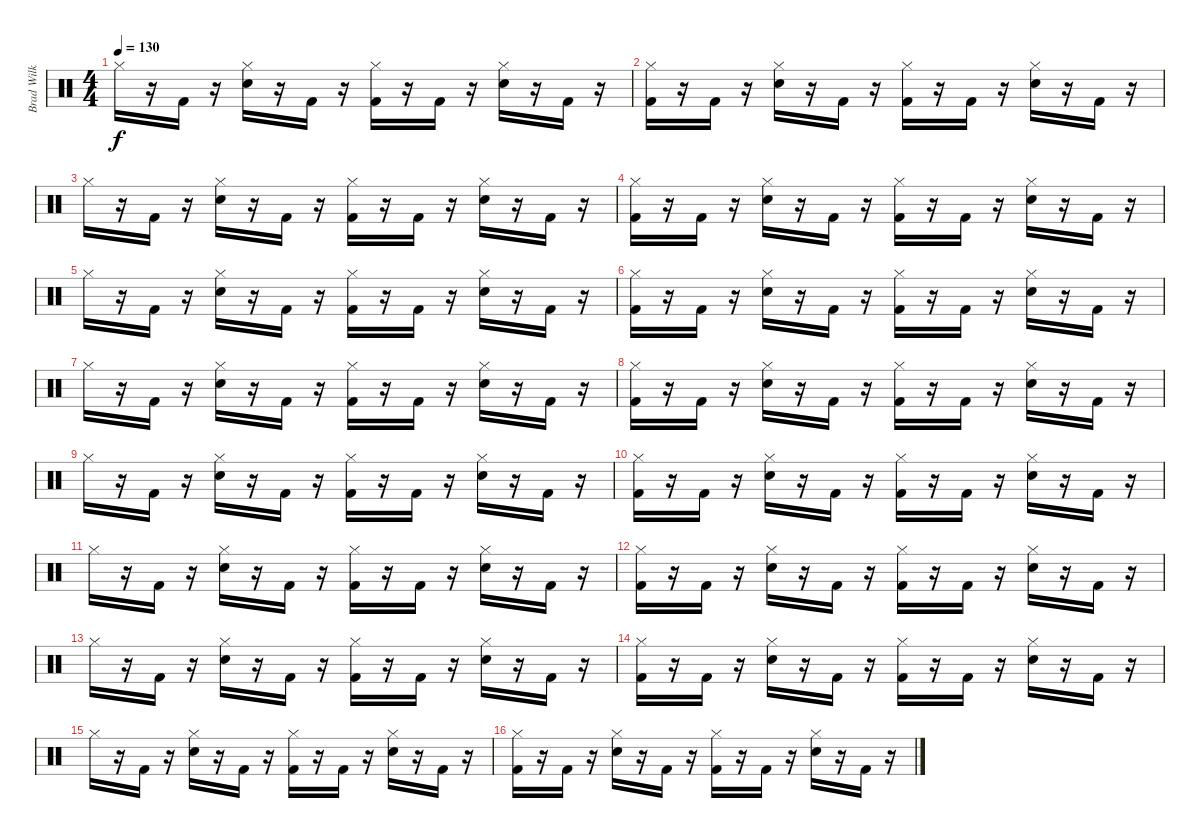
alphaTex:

\track ("Brad Wilk - Drums" "Brad Wilk ") {instrument percussion}
\staff {score}
\articulation defaults
\ts (4 4)
\tempo 130
\clef neutral
\ks c "Hi-Hat (closed)".16{dy f}
r.16 "Kick (hit) 2".16 r.16 ("Hi-Hat (closed)" "Electric Snare (hit)").16 r.16 "Kick (hit) 2".16 r.16 ("Hi-Hat (closed)" "Kick (hit) 2").16 r.16 "Kick (hit) 2".16 r.16 ("Hi-Hat (closed)" "Electric Snare (hit)").16 r.16 "Kick (hit) 2".16 r.16 |
("Hi-Hat (closed)" "Kick (hit) 2").16 r.16 "Kick (hit) 2".16 r.16 ("Hi-Hat (closed)" "Electric Snare (hit)").16 r.16 "Kick (hit) 2".16 r.16 ("Hi-Hat (closed)" "Kick (hit) 2").16 r.16 "Kick (hit) 2".16 r.16 ("Hi-Hat (closed)" "Electric Snare (hit)").16 r.16 "Kick (hit) 2".16 r.16 |
"Hi-Hat (closed)".16 r.16 "Kick (hit) 2".16 r.16 ("Hi-Hat (closed)" "Electric Snare (hit)").16 r.16 "Kick (hit) 2".16 r.16 ("Hi-Hat (closed)" "Kick (hit) 2").16 r.16 "Kick (hit) 2".16 r.16 ("Hi-Hat (closed)" "Electric Snare (hit)").16 r.16 "Kick (hit) 2".16 r.16 |
("Hi-Hat (closed)" "Kick (hit) 2").16 r.16 "Kick (hit) 2".16 r.16 ("Hi-Hat (closed)" "Electric Snare (hit)").16 r.16 "Kick (hit) 2".16 r.16 ("Hi-Hat (closed)" "Kick (hit) 2").16 r.16 "Kick (hit) 2".16 r.16 ("Hi-Hat (closed)" "Electric Snare (hit)").16 r.16 "Kick (hit) 2".16 r.16 |
"Hi-Hat (closed)".16 r.16 "Kick (hit) 2".16 r.16 ("Hi-Hat (closed)" "Electric Snare (hit)").16 r.16 "Kick (hit) 2".16 r.16 ("Hi-Hat (closed)" "Kick (hit) 2").16 r.16 "Kick (hit) 2".16 r.16 ("Hi-Hat (closed)" "Electric Snare (hit)").16 r.16 "Kick (hit) 2".16 r.16 |
("Hi-Hat (closed)" "Kick (hit) 2").16 r.16 "Kick (hit) 2".16 r.16 ("Hi-Hat (closed)" "Electric Snare (hit)").16 r.16 "Kick (hit) 2".16 r.16 ("Hi-Hat (closed)" "Kick (hit) 2").16 r.16 "Kick (hit) 2".16 r.16 ("Hi-Hat (closed)" "Electric Snare (hit)").16 r.16 "Kick (hit) 2".16 r.16 |
"Hi-Hat (closed)".16 r.16 "Kick (hit) 2".16 r.16 ("Hi-Hat (closed)" "Electric Snare (hit)").16 r.16 "Kick (hit) 2".16 r.16 ("Hi-Hat (closed)" "Kick (hit) 2").16 r.16 "Kick (hit) 2".16 r.16 ("Hi-Hat (closed)" "Electric Snare (hit)").16 r.16 "Kick (hit) 2".16 r.16 |
("Hi-Hat (closed)" "Kick (hit) 2").16 r.16 "Kick (hit) 2".16 r.16 ("Hi-Hat (closed)" "Electric Snare (hit)").16 r.16 "Kick (hit) 2".16 r.16 ("Hi-Hat (closed)" "Kick (hit) 2").16 r.16 "Kick (hit) 2".16 r.16 ("Hi-Hat (closed)" "Electric Snare (hit)").16 r.16 "Kick (hit) 2".16 r.16 |
"Hi-Hat (closed)".16 r.16 "Kick (hit) 2".16 r.16 ("Hi-Hat (closed)" "Electric Snare (hit)").16 r.16 "Kick (hit) 2".16 r.16 ("Hi-Hat (closed)" "Kick (hit) 2").16 r.16 "Kick (hit) 2".16 r.16 ("Hi-Hat (closed)" "Electric Snare (hit)").16 r.16 "Kick (hit) 2".16 r.16 |
("Hi-Hat (closed)" "Kick (hit) 2").16 r.16 "Kick (hit) 2".16 r.16 ("Hi-Hat (closed)" "Electric Snare (hit)").16 r.16 "Kick (hit) 2".16 r.16 ("Hi-Hat (closed)" "Kick (hit) 2").16 r.16 "Kick (hit) 2".16 r.16 ("Hi-Hat (closed)" "Electric Snare (hit)").16 r.16 "Kick (hit) 2".16 r.16 |
"Hi-Hat (closed)".16 r.16 "Kick (hit) 2".16 r.16 ("Hi-Hat (closed)" "Electric Snare (hit)").16 r.16 "Kick (hit) 2".16 r.16 ("Hi-Hat (closed)" "Kick (hit) 2").16 r.16 "Kick (hit) 2".16 r.16 ("Hi-Hat (closed)" "Electric Snare (hit)").16 r.16 "Kick (hit) 2".16 r.16 |
("Hi-Hat (closed)" "Kick (hit) 2").16 r.16 "Kick (hit) 2".16 r.16 ("Hi-Hat (closed)" "Electric Snare (hit)").16 r.16 "Kick (hit) 2".16 r.16 ("Hi-Hat (closed)" "Kick (hit) 2").16 r.16 "Kick (hit) 2".16 r.16 ("Hi-Hat (closed)" "Electric Snare (hit)").16 r.16 "Kick (hit) 2".16 r.16 |
"Hi-Hat (closed)".16 r.16 "Kick (hit) 2".16 r.16 ("Hi-Hat (closed)" "Electric Snare (hit)").16 r.16 "Kick (hit) 2".16 r.16 ("Hi-Hat (closed)" "Kick (hit) 2").16 r.16 "Kick (hit) 2".16 r.16 ("Hi-Hat (closed)" "Electric Snare (hit)").16 r.16 "Kick (hit) 2".16 r.16 |
("Hi-Hat (closed)" "Kick (hit) 2").16 r.16 "Kick (hit) 2".16 r.16 ("Hi-Hat (closed)" "Electric Snare (hit)").16 r.16 "Kick (hit) 2".16 r.16 ("Hi-Hat (closed)" "Kick (hit) 2").16 r.16 "Kick (hit) 2".16 r.16 ("Hi-Hat (closed)" "Electric Snare (hit)").16 r.16 "Kick (hit) 2".16 r.16 |
"Hi-Hat (closed)".16 r.16 "Kick (hit) 2".16 r.16 ("Hi-Hat (closed)" "Electric Snare (hit)").16 r.16 "Kick (hit) 2".16 r.16 ("Hi-Hat (closed)" "Kick (hit) 2").16 r.16 "Kick (hit) 2".16 r.16 ("Hi-Hat (closed)" "Electric Snare (hit)").16 r.16 "Kick (hit) 2".16 r.16 |
("Hi-Hat (closed)" "Kick (hit) 2").16 r.16 "Kick (hit) 2".16 r.16 ("Hi-Hat (closed)" "Electric Snare (hit)").16 r.16 "Kick (hit) 2".16 r.16 ("Hi-Hat (closed)" "Kick (hit) 2").16 r.16 "Kick (hit) 2".16 r.16 ("Hi-Hat (closed)" "Electric Snare (hit)").16 r.16 "Kick (hit) 2".16 r.16
